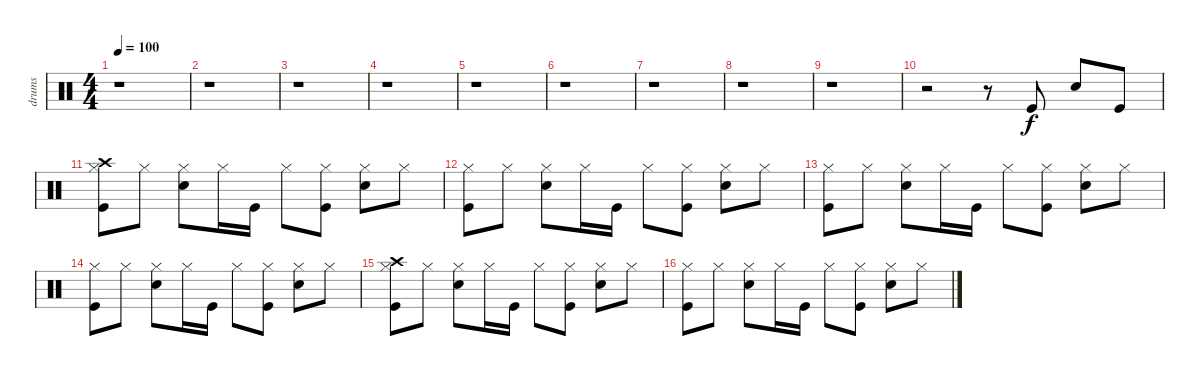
\track ("drums" "drums") {instrument percussion}
\staff {score}
\articulation defaults
\ts (4 4)
\tempo 100
\clef neutral
\ks c
r.1{dy f} |
r.1 |
r.1 |
r.1 |
r.1 |
r.1 |
r.1 |
r.1 |
r.1 |
r.2 r.8 "Kick (hit)".8 "Snare (hit) 2".8 "Kick (hit)".8 |
("Kick (hit)" "Hi-Hat (closed)" "Crash high (hit)").8 "Hi-Hat (closed)".8 ("Snare (hit) 2" "Hi-Hat (closed)").8 "Hi-Hat (closed)".16 "Kick (hit)".16 "Hi-Hat (closed)".8 ("Kick (hit)" "Hi-Hat (closed)").8 ("Snare (hit) 2" "Hi-Hat (closed)").8 "Hi-Hat (closed)".8 |
("Kick (hit)" "Hi-Hat (closed)").8 "Hi-Hat (closed)".8 ("Snare (hit) 2" "Hi-Hat (closed)").8 "Hi-Hat (closed)".16 "Kick (hit)".16 "Hi-Hat (closed)".8 ("Kick (hit)" "Hi-Hat (closed)").8 ("Snare (hit) 2" "Hi-Hat (closed)").8 "Hi-Hat (closed)".8 |
("Kick (hit)" "Hi-Hat (closed)").8 "Hi-Hat (closed)".8 ("Snare (hit) 2" "Hi-Hat (closed)").8 "Hi-Hat (closed)".16 "Kick (hit)".16 "Hi-Hat (closed)".8 ("Kick (hit)" "Hi-Hat (closed)").8 ("Snare (hit) 2" "Hi-Hat (closed)").8 "Hi-Hat (closed)".8 |
("Kick (hit)" "Hi-Hat (closed)").8 "Hi-Hat (closed)".8 ("Snare (hit) 2" "Hi-Hat (closed)").8 "Hi-Hat (closed)".16 "Kick (hit)".16 "Hi-Hat (closed)".8 ("Kick (hit)" "Hi-Hat (closed)").8 ("Snare (hit) 2" "Hi-Hat (closed)").8 "Hi-Hat (closed)".8 |
("Kick (hit)" "Hi-Hat (closed)" "Crash high (hit)").8 "Hi-Hat (closed)".8 ("Snare (hit) 2" "Hi-Hat (closed)").8 "Hi-Hat (closed)".16 "Kick (hit)".16 "Hi-Hat (closed)".8 ("Kick (hit)" "Hi-Hat (closed)").8 ("Snare (hit) 2" "Hi-Hat (closed)").8 "Hi-Hat (closed)".8 |
("Kick (hit)" "Hi-Hat (closed)").8 "Hi-Hat (closed)".8 ("Snare (hit) 2" "Hi-Hat (closed)").8 "Hi-Hat (closed)".16 "Kick (hit)".16 "Hi-Hat (closed)".8 ("Kick (hit)" "Hi-Hat (closed)").8 ("Snare (hit) 2" "Hi-Hat (closed)").8 "Hi-Hat (closed)".8
